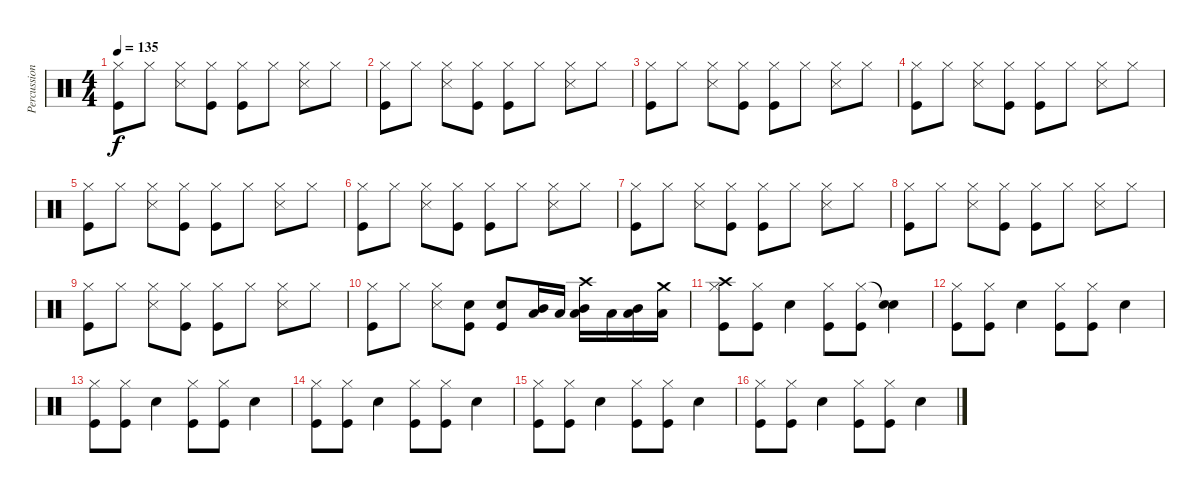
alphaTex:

\track ("Percussion" "Percussion") {instrument percussion}
\staff {score}
\articulation defaults
\ts (4 4)
\tempo 135
\clef neutral
\ks c
("Hi-Hat (closed)" "Kick (hit)").8{dy f} "Hi-Hat (closed)".8 ("Hi-Hat (closed)" "Snare (side stick) 3").8 ("Hi-Hat (closed)" "Kick (hit)").8 ("Hi-Hat (closed)" "Kick (hit)").8 "Hi-Hat (closed)".8 ("Hi-Hat (closed)" "Snare (side stick) 3").8 "Hi-Hat (closed)".8 |
("Hi-Hat (closed)" "Kick (hit)").8 "Hi-Hat (closed)".8 ("Hi-Hat (closed)" "Snare (side stick) 3").8 ("Hi-Hat (closed)" "Kick (hit)").8 ("Hi-Hat (closed)" "Kick (hit)").8 "Hi-Hat (closed)".8 ("Hi-Hat (closed)" "Snare (side stick) 3").8 "Hi-Hat (closed)".8 |
("Hi-Hat (closed)" "Kick (hit)").8 "Hi-Hat (closed)".8 ("Hi-Hat (closed)" "Snare (side stick) 3").8 ("Hi-Hat (closed)" "Kick (hit)").8 ("Hi-Hat (closed)" "Kick (hit)").8 "Hi-Hat (closed)".8 ("Hi-Hat (closed)" "Snare (side stick) 3").8 "Hi-Hat (closed)".8 |
("Hi-Hat (closed)" "Kick (hit)").8 "Hi-Hat (closed)".8 ("Hi-Hat (closed)" "Snare (side stick) 3").8 ("Hi-Hat (closed)" "Kick (hit)").8 ("Hi-Hat (closed)" "Kick (hit)").8 "Hi-Hat (closed)".8 ("Hi-Hat (closed)" "Snare (side stick) 3").8 "Hi-Hat (closed)".8 |
("Hi-Hat (closed)" "Kick (hit)").8 "Hi-Hat (closed)".8 ("Hi-Hat (closed)" "Snare (side stick) 3").8 ("Hi-Hat (closed)" "Kick (hit)").8 ("Hi-Hat (closed)" "Kick (hit)").8 "Hi-Hat (closed)".8 ("Hi-Hat (closed)" "Snare (side stick) 3").8 "Hi-Hat (closed)".8 |
("Hi-Hat (closed)" "Kick (hit)").8 "Hi-Hat (closed)".8 ("Hi-Hat (closed)" "Snare (side stick) 3").8 ("Hi-Hat (closed)" "Kick (hit)").8 ("Hi-Hat (closed)" "Kick (hit)").8 "Hi-Hat (closed)".8 ("Hi-Hat (closed)" "Snare (side stick) 3").8 "Hi-Hat (closed)".8 |
("Hi-Hat (closed)" "Kick (hit)").8 "Hi-Hat (closed)".8 ("Hi-Hat (closed)" "Snare (side stick) 3").8 ("Hi-Hat (closed)" "Kick (hit)").8 ("Hi-Hat (closed)" "Kick (hit)").8 "Hi-Hat (closed)".8 ("Hi-Hat (closed)" "Snare (side stick) 3").8 "Hi-Hat (closed)".8 |
("Hi-Hat (closed)" "Kick (hit)").8 "Hi-Hat (closed)".8 ("Hi-Hat (closed)" "Snare (side stick) 3").8 ("Hi-Hat (closed)" "Kick (hit)").8 ("Hi-Hat (closed)" "Kick (hit)").8 "Hi-Hat (closed)".8 ("Hi-Hat (closed)" "Snare (side stick) 3").8 "Hi-Hat (closed)".8 |
("Hi-Hat (closed)" "Kick (hit)").8 "Hi-Hat (closed)".8 ("Hi-Hat (closed)" "Snare (side stick) 3").8 ("Hi-Hat (closed)" "Kick (hit)").8 ("Hi-Hat (closed)" "Kick (hit)").8 "Hi-Hat (closed)".8 ("Hi-Hat (closed)" "Snare (side stick) 3").8 "Hi-Hat (closed)".8 |
("Hi-Hat (closed)" "Kick (hit)").8 "Hi-Hat (closed)".8 ("Hi-Hat (closed)" "Snare (side stick) 3").8 ("Electric Snare (hit)" "Kick (hit)").8 ("Electric Snare (hit)" "Kick (hit)").8 ("Low Tom (hit)" "Mid Tom (hit)").16 "Low Tom (hit)".16 ("Crash high (hit)" "Low Tom (hit)" "Mid Tom (hit)").16 "Low Tom (hit)".16 ("Low Tom (hit)" "Mid Tom (hit)").16 ("Low Tom (hit)" "Crash medium (hit)").16 |
("Crash high (hit)" "Hi-Hat (closed)" "Kick (hit)").8 ("Hi-Hat (closed)" "Kick (hit)").8 "Electric Snare (hit)".4 ("Hi-Hat (closed)" "Kick (hit)").8 ("Hi-Hat (closed)" "Kick (hit)").8 ("Snare (hit)"{t} "Electric Snare (hit)").4 |
("Hi-Hat (closed)" "Kick (hit)").8 ("Hi-Hat (closed)" "Kick (hit)").8 "Electric Snare (hit)".4 ("Hi-Hat (closed)" "Kick (hit)").8 ("Hi-Hat (closed)" "Kick (hit)").8 "Electric Snare (hit)".4 |
("Hi-Hat (closed)" "Kick (hit)").8 ("Hi-Hat (closed)" "Kick (hit)").8 "Electric Snare (hit)".4 ("Hi-Hat (closed)" "Kick (hit)").8 ("Hi-Hat (closed)" "Kick (hit)").8 "Electric Snare (hit)".4 |
("Hi-Hat (closed)" "Kick (hit)").8 ("Hi-Hat (closed)" "Kick (hit)").8 "Electric Snare (hit)".4 ("Hi-Hat (closed)" "Kick (hit)").8 ("Hi-Hat (closed)" "Kick (hit)").8 "Electric Snare (hit)".4 |
("Hi-Hat (closed)" "Kick (hit)").8 ("Hi-Hat (closed)" "Kick (hit)").8 "Electric Snare (hit)".4 ("Hi-Hat (closed)" "Kick (hit)").8 ("Hi-Hat (closed)" "Kick (hit)").8 "Electric Snare (hit)".4 |
("Hi-Hat (closed)" "Kick (hit)").8 ("Hi-Hat (closed)" "Kick (hit)").8 "Electric Snare (hit)".4 ("Hi-Hat (closed)" "Kick (hit)").8 ("Hi-Hat (closed)" "Kick (hit)").8 "Electric Snare (hit)".4
